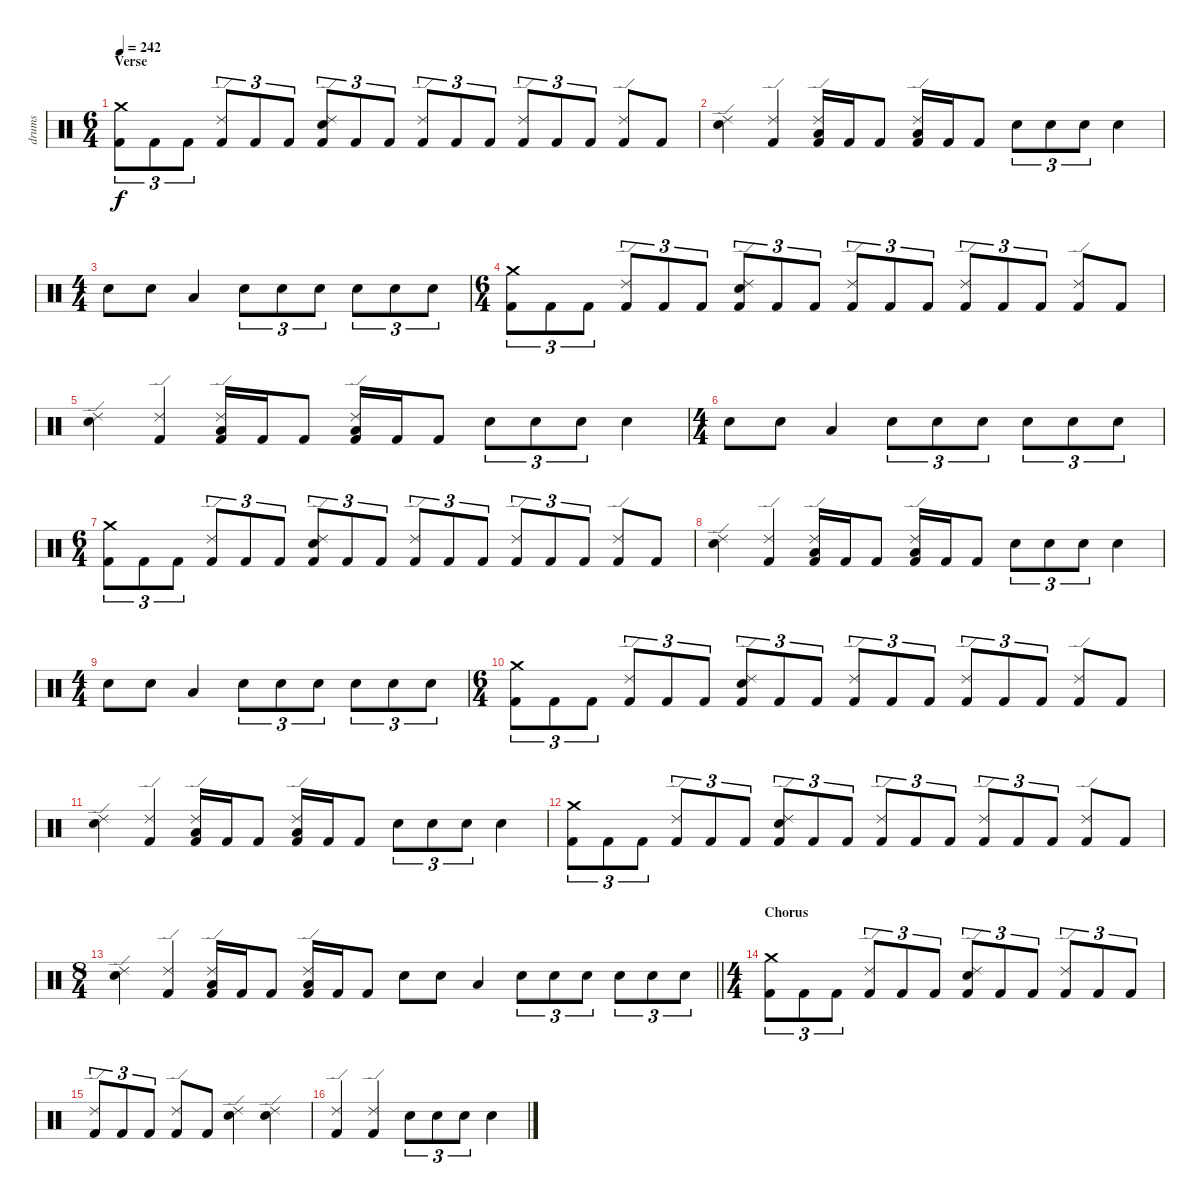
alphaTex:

\track ("drums" "drums") {instrument percussion}
\staff {score}
\articulation defaults
\ts (6 4)
\section ("" "Verse")
\tempo 242
\clef neutral
\ks c
("Crash medium (hit)" "Kick (hit) 2").8{tu (3 2) dy f} "Kick (hit) 2".8{tu (3 2)} "Kick (hit) 2".8{tu (3 2)} ("Ride (edge) 2" "Kick (hit) 2").8{tu (3 2)} "Kick (hit) 2".8{tu (3 2)} "Kick (hit) 2".8{tu (3 2)} ("Ride (edge) 2" "Electric Snare (hit)" "Kick (hit) 2").8{tu (3 2)} "Kick (hit) 2".8{tu (3 2)} "Kick (hit) 2".8{tu (3 2)} ("Ride (edge) 2" "Kick (hit) 2").8{tu (3 2)} "Kick (hit) 2".8{tu (3 2)} "Kick (hit) 2".8{tu (3 2)} ("Ride (edge) 2" "Kick (hit) 2").8{tu (3 2)} "Kick (hit) 2".8{tu (3 2)} "Kick (hit) 2".8{tu (3 2)} ("Ride (edge) 2" "Kick (hit) 2").8 "Kick (hit) 2".8 |
("Ride (edge) 2" "Electric Snare (hit)").4 ("Ride (edge) 2" "Kick (hit) 2").4 ("Ride (edge) 2" "Low Tom (hit)" "Kick (hit) 2").16 "Kick (hit) 2".16 "Kick (hit) 2".8 ("Ride (edge) 2" "Low Tom (hit)" "Kick (hit) 2").16 "Kick (hit) 2".16 "Kick (hit) 2".8 "Electric Snare (hit)".8{tu (3 2)} "Electric Snare (hit)".8{tu (3 2)} "Electric Snare (hit)".8{tu (3 2)} "Electric Snare (hit)".4 |
\ts (4 4)
"Electric Snare (hit)".8 "Electric Snare (hit)".8 "Low Tom (hit)".4 "Electric Snare (hit)".8{tu (3 2)} "Electric Snare (hit)".8{tu (3 2)} "Electric Snare (hit)".8{tu (3 2)} "Electric Snare (hit)".8{tu (3 2)} "Electric Snare (hit)".8{tu (3 2)} "Electric Snare (hit)".8{tu (3 2)} |
\ts (6 4)
("Crash medium (hit)" "Kick (hit) 2").8{tu (3 2)} "Kick (hit) 2".8{tu (3 2)} "Kick (hit) 2".8{tu (3 2)} ("Ride (edge) 2" "Kick (hit) 2").8{tu (3 2)} "Kick (hit) 2".8{tu (3 2)} "Kick (hit) 2".8{tu (3 2)} ("Ride (edge) 2" "Electric Snare (hit)" "Kick (hit) 2").8{tu (3 2)} "Kick (hit) 2".8{tu (3 2)} "Kick (hit) 2".8{tu (3 2)} ("Ride (edge) 2" "Kick (hit) 2").8{tu (3 2)} "Kick (hit) 2".8{tu (3 2)} "Kick (hit) 2".8{tu (3 2)} ("Ride (edge) 2" "Kick (hit) 2").8{tu (3 2)} "Kick (hit) 2".8{tu (3 2)} "Kick (hit) 2".8{tu (3 2)} ("Ride (edge) 2" "Kick (hit) 2").8 "Kick (hit) 2".8 |
("Ride (edge) 2" "Electric Snare (hit)").4 ("Ride (edge) 2" "Kick (hit) 2").4 ("Ride (edge) 2" "Low Tom (hit)" "Kick (hit) 2").16 "Kick (hit) 2".16 "Kick (hit) 2".8 ("Ride (edge) 2" "Low Tom (hit)" "Kick (hit) 2").16 "Kick (hit) 2".16 "Kick (hit) 2".8 "Electric Snare (hit)".8{tu (3 2)} "Electric Snare (hit)".8{tu (3 2)} "Electric Snare (hit)".8{tu (3 2)} "Electric Snare (hit)".4 |
\ts (4 4)
"Electric Snare (hit)".8 "Electric Snare (hit)".8 "Low Tom (hit)".4 "Electric Snare (hit)".8{tu (3 2)} "Electric Snare (hit)".8{tu (3 2)} "Electric Snare (hit)".8{tu (3 2)} "Electric Snare (hit)".8{tu (3 2)} "Electric Snare (hit)".8{tu (3 2)} "Electric Snare (hit)".8{tu (3 2)} |
\ts (6 4)
("Crash medium (hit)" "Kick (hit) 2").8{tu (3 2)} "Kick (hit) 2".8{tu (3 2)} "Kick (hit) 2".8{tu (3 2)} ("Ride (edge) 2" "Kick (hit) 2").8{tu (3 2)} "Kick (hit) 2".8{tu (3 2)} "Kick (hit) 2".8{tu (3 2)} ("Ride (edge) 2" "Electric Snare (hit)" "Kick (hit) 2").8{tu (3 2)} "Kick (hit) 2".8{tu (3 2)} "Kick (hit) 2".8{tu (3 2)} ("Ride (edge) 2" "Kick (hit) 2").8{tu (3 2)} "Kick (hit) 2".8{tu (3 2)} "Kick (hit) 2".8{tu (3 2)} ("Ride (edge) 2" "Kick (hit) 2").8{tu (3 2)} "Kick (hit) 2".8{tu (3 2)} "Kick (hit) 2".8{tu (3 2)} ("Ride (edge) 2" "Kick (hit) 2").8 "Kick (hit) 2".8 |
("Ride (edge) 2" "Electric Snare (hit)").4 ("Ride (edge) 2" "Kick (hit) 2").4 ("Ride (edge) 2" "Low Tom (hit)" "Kick (hit) 2").16 "Kick (hit) 2".16 "Kick (hit) 2".8 ("Ride (edge) 2" "Low Tom (hit)" "Kick (hit) 2").16 "Kick (hit) 2".16 "Kick (hit) 2".8 "Electric Snare (hit)".8{tu (3 2)} "Electric Snare (hit)".8{tu (3 2)} "Electric Snare (hit)".8{tu (3 2)} "Electric Snare (hit)".4 |
\ts (4 4)
"Electric Snare (hit)".8 "Electric Snare (hit)".8 "Low Tom (hit)".4 "Electric Snare (hit)".8{tu (3 2)} "Electric Snare (hit)".8{tu (3 2)} "Electric Snare (hit)".8{tu (3 2)} "Electric Snare (hit)".8{tu (3 2)} "Electric Snare (hit)".8{tu (3 2)} "Electric Snare (hit)".8{tu (3 2)} |
\ts (6 4)
("Crash medium (hit)" "Kick (hit) 2").8{tu (3 2)} "Kick (hit) 2".8{tu (3 2)} "Kick (hit) 2".8{tu (3 2)} ("Ride (edge) 2" "Kick (hit) 2").8{tu (3 2)} "Kick (hit) 2".8{tu (3 2)} "Kick (hit) 2".8{tu (3 2)} ("Ride (edge) 2" "Electric Snare (hit)" "Kick (hit) 2").8{tu (3 2)} "Kick (hit) 2".8{tu (3 2)} "Kick (hit) 2".8{tu (3 2)} ("Ride (edge) 2" "Kick (hit) 2").8{tu (3 2)} "Kick (hit) 2".8{tu (3 2)} "Kick (hit) 2".8{tu (3 2)} ("Ride (edge) 2" "Kick (hit) 2").8{tu (3 2)} "Kick (hit) 2".8{tu (3 2)} "Kick (hit) 2".8{tu (3 2)} ("Ride (edge) 2" "Kick (hit) 2").8 "Kick (hit) 2".8 |
("Ride (edge) 2" "Electric Snare (hit)").4 ("Ride (edge) 2" "Kick (hit) 2").4 ("Ride (edge) 2" "Low Tom (hit)" "Kick (hit) 2").16 "Kick (hit) 2".16 "Kick (hit) 2".8 ("Ride (edge) 2" "Low Tom (hit)" "Kick (hit) 2").16 "Kick (hit) 2".16 "Kick (hit) 2".8 "Electric Snare (hit)".8{tu (3 2)} "Electric Snare (hit)".8{tu (3 2)} "Electric Snare (hit)".8{tu (3 2)} "Electric Snare (hit)".4 |
("Crash medium (hit)" "Kick (hit) 2").8{tu (3 2)} "Kick (hit) 2".8{tu (3 2)} "Kick (hit) 2".8{tu (3 2)} ("Ride (edge) 2" "Kick (hit) 2").8{tu (3 2)} "Kick (hit) 2".8{tu (3 2)} "Kick (hit) 2".8{tu (3 2)} ("Ride (edge) 2" "Electric Snare (hit)" "Kick (hit) 2").8{tu (3 2)} "Kick (hit) 2".8{tu (3 2)} "Kick (hit) 2".8{tu (3 2)} ("Ride (edge) 2" "Kick (hit) 2").8{tu (3 2)} "Kick (hit) 2".8{tu (3 2)} "Kick (hit) 2".8{tu (3 2)} ("Ride (edge) 2" "Kick (hit) 2").8{tu (3 2)} "Kick (hit) 2".8{tu (3 2)} "Kick (hit) 2".8{tu (3 2)} ("Ride (edge) 2" "Kick (hit) 2").8 "Kick (hit) 2".8 |
\ts (8 4)
\barLineRight lightlight
("Ride (edge) 2" "Electric Snare (hit)").4 ("Ride (edge) 2" "Kick (hit) 2").4 ("Ride (edge) 2" "Low Tom (hit)" "Kick (hit) 2").16 "Kick (hit) 2".16 "Kick (hit) 2".8 ("Ride (edge) 2" "Low Tom (hit)" "Kick (hit) 2").16 "Kick (hit) 2".16 "Kick (hit) 2".8 "Electric Snare (hit)".8 "Electric Snare (hit)".8 "Low Tom (hit)".4 "Electric Snare (hit)".8{tu (3 2)} "Electric Snare (hit)".8{tu (3 2)} "Electric Snare (hit)".8{tu (3 2)} "Electric Snare (hit)".8{tu (3 2)} "Electric Snare (hit)".8{tu (3 2)} "Electric Snare (hit)".8{tu (3 2)} |
\ts (4 4)
\section ("" "Chorus")
("Crash medium (hit)" "Kick (hit) 2").8{tu (3 2)} "Kick (hit) 2".8{tu (3 2)} "Kick (hit) 2".8{tu (3 2)} ("Ride (edge) 2" "Kick (hit) 2").8{tu (3 2)} "Kick (hit) 2".8{tu (3 2)} "Kick (hit) 2".8{tu (3 2)} ("Ride (edge) 2" "Electric Snare (hit)" "Kick (hit) 2").8{tu (3 2)} "Kick (hit) 2".8{tu (3 2)} "Kick (hit) 2".8{tu (3 2)} ("Ride (edge) 2" "Kick (hit) 2").8{tu (3 2)} "Kick (hit) 2".8{tu (3 2)} "Kick (hit) 2".8{tu (3 2)} |
("Ride (edge) 2" "Kick (hit) 2").8{tu (3 2)} "Kick (hit) 2".8{tu (3 2)} "Kick (hit) 2".8{tu (3 2)} ("Ride (edge) 2" "Kick (hit) 2").8 "Kick (hit) 2".8 ("Ride (edge) 2" "Electric Snare (hit)").4 ("Ride (edge) 2" "Electric Snare (hit)").4 |
("Ride (edge) 2" "Kick (hit) 2").4 ("Ride (edge) 2" "Kick (hit) 2").4 "Electric Snare (hit)".8{tu (3 2)} "Electric Snare (hit)".8{tu (3 2)} "Electric Snare (hit)".8{tu (3 2)} "Electric Snare (hit)".4
